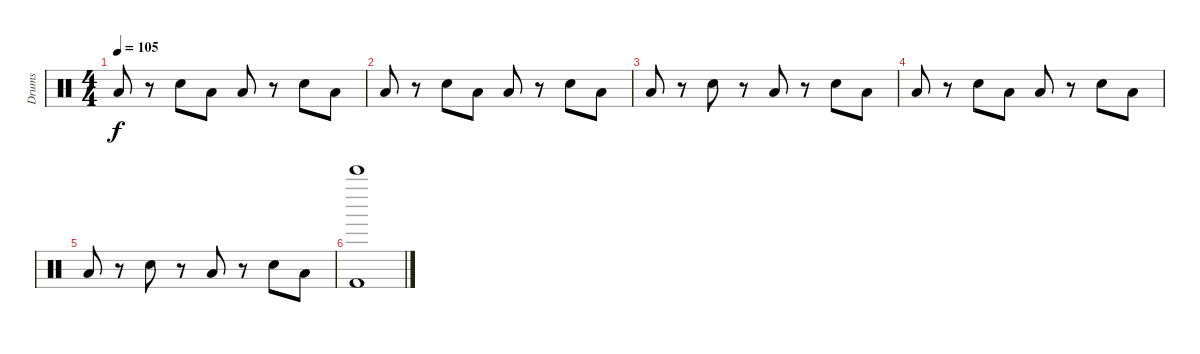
\track ("Drums" "Drums") {instrument percussion}
\staff {score}
\articulation defaults
\ts (4 4)
\tempo 105
\clef neutral
\ks c "Low Floor Tom (hit)".8{dy f}
r.8 "Hand Clap (hit)".8 "Low Floor Tom (hit)".8 "Low Floor Tom (hit)".8 r.8 "Hand Clap (hit)".8 "Low Floor Tom (hit)".8 |
"Low Floor Tom (hit)".8 r.8 "Hand Clap (hit)".8 "Low Floor Tom (hit)".8 "Low Floor Tom (hit)".8 r.8 "Hand Clap (hit)".8 "Low Floor Tom (hit)".8 |
"Low Floor Tom (hit)".8 r.8 "Hand Clap (hit)".8 r.8 "Low Floor Tom (hit)".8 r.8 "Hand Clap (hit)".8 "Low Floor Tom (hit)".8 |
"Low Floor Tom (hit)".8 r.8 "Hand Clap (hit)".8 "Low Floor Tom (hit)".8 "Low Floor Tom (hit)".8 r.8 "Hand Clap (hit)".8 "Low Floor Tom (hit)".8 |
"Low Floor Tom (hit)".8 r.8 "Hand Clap (hit)".8 r.8 "Low Floor Tom (hit)".8 r.8 "Hand Clap (hit)".8 "Low Floor Tom (hit)".8 |
("Bell Tree (hit)" "Kick (hit) 2").1
